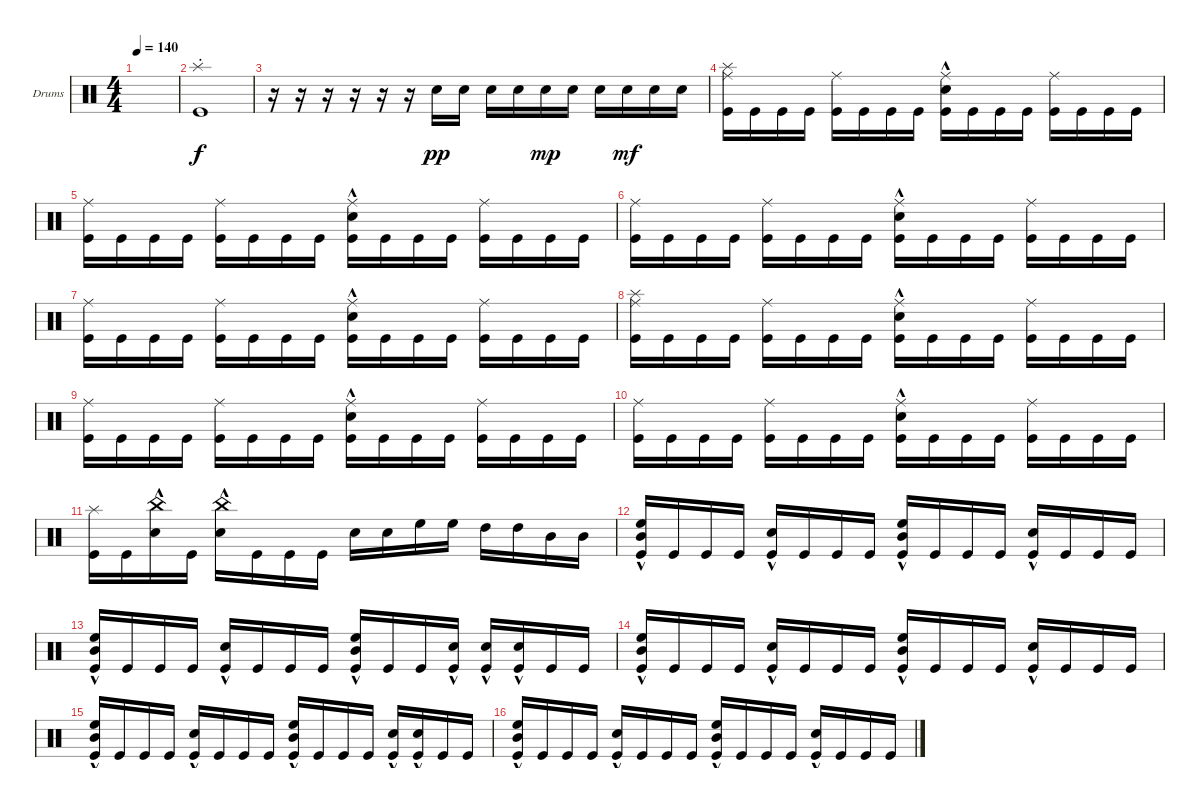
\bracketExtendMode groupsimilarinstruments
\firstSystemTrackNameOrientation horizontal
\otherSystemsTrackNameOrientation horizontal
\track ("Drumkit" "Drums") {instrument percussion}
\staff {score}
\articulation defaults
\ts (4 4)
\tempo 140
\clef neutral
\ks c
|
("Splash (hit)"{st} "Kick (hit)").1 |
r.16 r.16 r.16 r.16 r.16 r.16 "Snare (hit) 2".16{dy pp} "Snare (hit) 2".16 "Snare (hit) 2".16 "Snare (hit) 2".16 "Snare (hit) 2".16{dy mp} "Snare (hit) 2".16 "Snare (hit) 2".16 "Snare (hit) 2".16{dy mf} "Snare (hit) 2".16 "Snare (hit) 2".16 |
("Kick (hit)" "Ride (middle)" "Splash (hit)").16 "Kick (hit)".16 "Kick (hit)".16 "Kick (hit)".16 ("Kick (hit)" "Ride (middle)").16 "Kick (hit)".16 "Kick (hit)".16 "Kick (hit)".16 ("Kick (hit)" "Snare (hit) 2"{hac} "Ride (middle)").16 "Kick (hit)".16 "Kick (hit)".16 "Kick (hit)".16 ("Kick (hit)" "Ride (middle)").16 "Kick (hit)".16 "Kick (hit)".16 "Kick (hit)".16 |
("Kick (hit)" "Ride (middle)").16 "Kick (hit)".16 "Kick (hit)".16 "Kick (hit)".16 ("Kick (hit)" "Ride (middle)").16 "Kick (hit)".16 "Kick (hit)".16 "Kick (hit)".16 ("Kick (hit)" "Snare (hit) 2"{hac} "Ride (middle)").16 "Kick (hit)".16 "Kick (hit)".16 "Kick (hit)".16 ("Kick (hit)" "Ride (middle)").16 "Kick (hit)".16 "Kick (hit)".16 "Kick (hit)".16 |
("Kick (hit)" "Ride (middle)").16 "Kick (hit)".16 "Kick (hit)".16 "Kick (hit)".16 ("Kick (hit)" "Ride (middle)").16 "Kick (hit)".16 "Kick (hit)".16 "Kick (hit)".16 ("Kick (hit)" "Snare (hit) 2"{hac} "Ride (middle)").16 "Kick (hit)".16 "Kick (hit)".16 "Kick (hit)".16 ("Kick (hit)" "Ride (middle)").16 "Kick (hit)".16 "Kick (hit)".16 "Kick (hit)".16 |
("Kick (hit)" "Ride (middle)").16 "Kick (hit)".16 "Kick (hit)".16 "Kick (hit)".16 ("Kick (hit)" "Ride (middle)").16 "Kick (hit)".16 "Kick (hit)".16 "Kick (hit)".16 ("Kick (hit)" "Snare (hit) 2"{hac} "Ride (middle)").16 "Kick (hit)".16 "Kick (hit)".16 "Kick (hit)".16 ("Kick (hit)" "Ride (middle)").16 "Kick (hit)".16 "Kick (hit)".16 "Kick (hit)".16 |
("Kick (hit)" "Ride (middle)" "Splash (hit)").16 "Kick (hit)".16 "Kick (hit)".16 "Kick (hit)".16 ("Kick (hit)" "Ride (middle)").16 "Kick (hit)".16 "Kick (hit)".16 "Kick (hit)".16 ("Kick (hit)" "Snare (hit) 2"{hac} "Ride (middle)").16 "Kick (hit)".16 "Kick (hit)".16 "Kick (hit)".16 ("Kick (hit)" "Ride (middle)").16 "Kick (hit)".16 "Kick (hit)".16 "Kick (hit)".16 |
("Kick (hit)" "Ride (middle)").16 "Kick (hit)".16 "Kick (hit)".16 "Kick (hit)".16 ("Kick (hit)" "Ride (middle)").16 "Kick (hit)".16 "Kick (hit)".16 "Kick (hit)".16 ("Kick (hit)" "Snare (hit) 2"{hac} "Ride (middle)").16 "Kick (hit)".16 "Kick (hit)".16 "Kick (hit)".16 ("Kick (hit)" "Ride (middle)").16 "Kick (hit)".16 "Kick (hit)".16 "Kick (hit)".16 |
("Kick (hit)" "Ride (middle)").16 "Kick (hit)".16 "Kick (hit)".16 "Kick (hit)".16 ("Kick (hit)" "Ride (middle)").16 "Kick (hit)".16 "Kick (hit)".16 "Kick (hit)".16 ("Kick (hit)" "Snare (hit) 2"{hac} "Ride (middle)").16 "Kick (hit)".16 "Kick (hit)".16 "Kick (hit)".16 ("Kick (hit)" "Ride (middle)").16 "Kick (hit)".16 "Kick (hit)".16 "Kick (hit)".16 |
("Kick (hit)" "Splash (hit)").16 "Kick (hit)".16 ("Snare (hit) 2"{hac} "China (hit)"{hac}).16 "Kick (hit)".16 ("Snare (hit) 2"{hac} "China (hit)"{hac}).16 "Kick (hit)".16 "Kick (hit)".16 "Kick (hit)".16 "Snare (hit) 2".16 "Snare (hit) 2".16 "High Floor Tom (hit)".16 "High Floor Tom (hit)".16 "High Tom (hit)".16 "High Tom (hit)".16 "Mid Tom (hit)".16 "Mid Tom (hit)".16 |
("Kick (hit)" "Mid Tom (hit)"{hac} "High Floor Tom (hit)"{hac}).16 "Kick (hit)".16 "Kick (hit)".16 "Kick (hit)".16 ("Snare (hit) 2"{hac} "Kick (hit)").16 "Kick (hit)".16 "Kick (hit)".16 "Kick (hit)".16 ("Mid Tom (hit)"{hac} "High Floor Tom (hit)"{hac} "Kick (hit)").16 "Kick (hit)".16 "Kick (hit)".16 "Kick (hit)".16 ("Snare (hit) 2"{hac} "Kick (hit)").16 "Kick (hit)".16 "Kick (hit)".16 "Kick (hit)".16 |
("Kick (hit)" "Mid Tom (hit)"{hac} "High Floor Tom (hit)"{hac}).16 "Kick (hit)".16 "Kick (hit)".16 "Kick (hit)".16 ("Snare (hit) 2"{hac} "Kick (hit)").16 "Kick (hit)".16 "Kick (hit)".16 "Kick (hit)".16 ("Mid Tom (hit)"{hac} "High Floor Tom (hit)"{hac} "Kick (hit)").16 "Kick (hit)".16 "Kick (hit)".16 ("Kick (hit)" "Snare (hit) 2"{hac}).16 ("Snare (hit) 2"{hac} "Kick (hit)").16 ("Kick (hit)" "Snare (hit) 2"{hac}).16 "Kick (hit)".16 "Kick (hit)".16 |
("Kick (hit)" "Mid Tom (hit)"{hac} "High Floor Tom (hit)"{hac}).16 "Kick (hit)".16 "Kick (hit)".16 "Kick (hit)".16 ("Snare (hit) 2"{hac} "Kick (hit)").16 "Kick (hit)".16 "Kick (hit)".16 "Kick (hit)".16 ("Mid Tom (hit)"{hac} "High Floor Tom (hit)"{hac} "Kick (hit)").16 "Kick (hit)".16 "Kick (hit)".16 "Kick (hit)".16 ("Snare (hit) 2"{hac} "Kick (hit)").16 "Kick (hit)".16 "Kick (hit)".16 "Kick (hit)".16 |
("Kick (hit)" "Mid Tom (hit)"{hac} "High Floor Tom (hit)"{hac}).16 "Kick (hit)".16 "Kick (hit)".16 "Kick (hit)".16 ("Snare (hit) 2"{hac} "Kick (hit)").16 "Kick (hit)".16 "Kick (hit)".16 "Kick (hit)".16 ("Mid Tom (hit)"{hac} "High Floor Tom (hit)"{hac} "Kick (hit)").16 "Kick (hit)".16 "Kick (hit)".16 "Kick (hit)".16 ("Snare (hit) 2"{hac} "Kick (hit)").16 ("Kick (hit)" "Snare (hit) 2"{hac}).16 "Kick (hit)".16 "Kick (hit)".16 |
("Kick (hit)" "Mid Tom (hit)"{hac} "High Floor Tom (hit)"{hac}).16 "Kick (hit)".16 "Kick (hit)".16 "Kick (hit)".16 ("Snare (hit) 2"{hac} "Kick (hit)").16 "Kick (hit)".16 "Kick (hit)".16 "Kick (hit)".16 ("Mid Tom (hit)"{hac} "High Floor Tom (hit)"{hac} "Kick (hit)").16 "Kick (hit)".16 "Kick (hit)".16 "Kick (hit)".16 ("Snare (hit) 2"{hac} "Kick (hit)").16 "Kick (hit)".16 "Kick (hit)".16 "Kick (hit)".16
